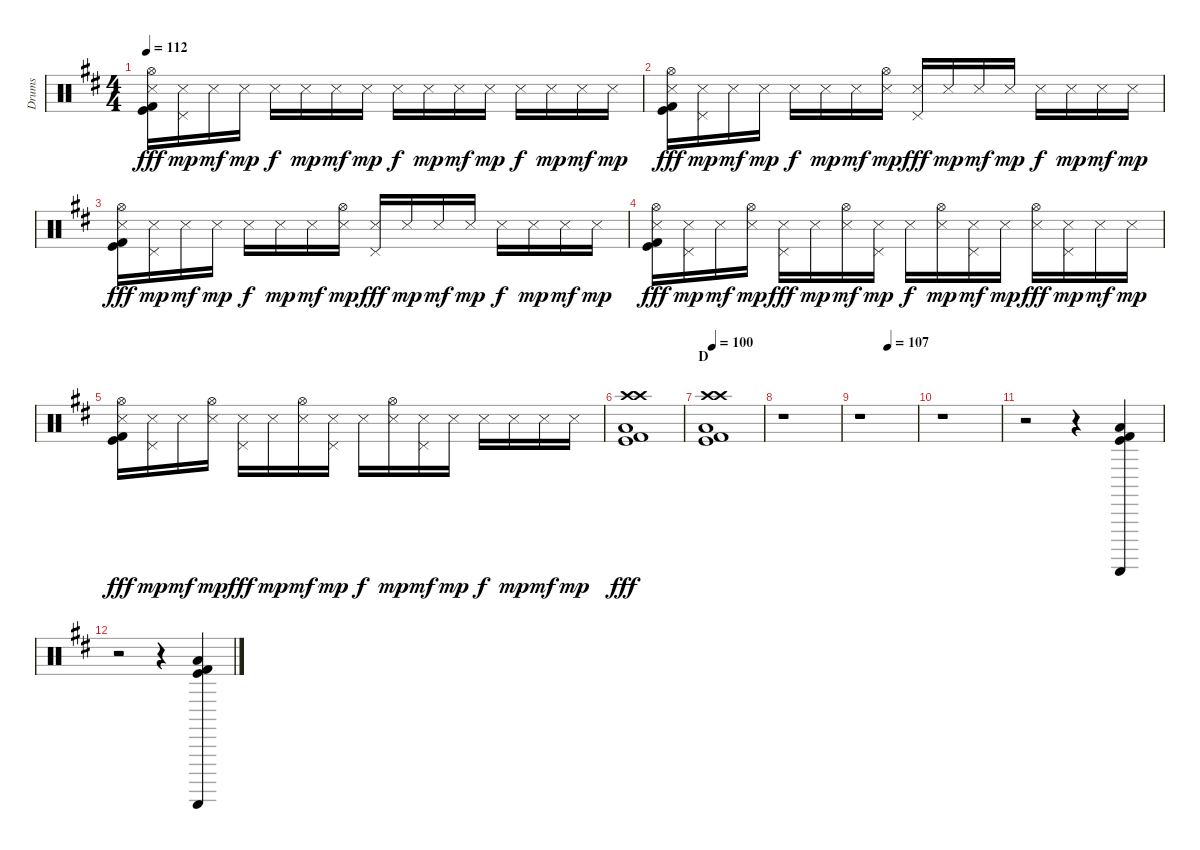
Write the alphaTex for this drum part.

\track ("Drums" "Drums") {instrument percussion}
\staff {score}
\articulation defaults
\ts (4 4)
\tempo 112
\clef neutral
\ks d
("Hi-Hat (open)" "Snare (side stick) 3" "Kick (hit) 2" "Kick (hit)").16{dy fff} ("Pedal Hi-Hat (hit)" "Snare (side stick) 3").16{dy mp} "Snare (side stick) 3".16{dy mf} "Snare (side stick) 3".16{dy mp} "Snare (side stick) 3".16{dy f} "Snare (side stick) 3".16{dy mp} "Snare (side stick) 3".16{dy mf} "Snare (side stick) 3".16{dy mp} "Snare (side stick) 3".16{dy f} "Snare (side stick) 3".16{dy mp} "Snare (side stick) 3".16{dy mf} "Snare (side stick) 3".16{dy mp} "Snare (side stick) 3".16{dy f} "Snare (side stick) 3".16{dy mp} "Snare (side stick) 3".16{dy mf} "Snare (side stick) 3".16{dy mp} |
("Hi-Hat (open)" "Snare (side stick) 3" "Kick (hit) 2" "Kick (hit)").16{dy fff} ("Pedal Hi-Hat (hit)" "Snare (side stick) 3").16{dy mp} "Snare (side stick) 3".16{dy mf} "Snare (side stick) 3".16{dy mp} "Snare (side stick) 3".16{dy f} "Snare (side stick) 3".16{dy mp} "Snare (side stick) 3".16{dy mf} ("Hi-Hat (open)" "Snare (side stick) 3").16{dy mp} ("Pedal Hi-Hat (hit)" "Snare (side stick) 3").16{dy fff} "Snare (side stick) 3".16{dy mp} "Snare (side stick) 3".16{dy mf} "Snare (side stick) 3".16{dy mp} "Snare (side stick) 3".16{dy f} "Snare (side stick) 3".16{dy mp} "Snare (side stick) 3".16{dy mf} "Snare (side stick) 3".16{dy mp} |
("Hi-Hat (open)" "Snare (side stick) 3" "Kick (hit) 2" "Kick (hit)").16{dy fff} ("Pedal Hi-Hat (hit)" "Snare (side stick) 3").16{dy mp} "Snare (side stick) 3".16{dy mf} "Snare (side stick) 3".16{dy mp} "Snare (side stick) 3".16{dy f} "Snare (side stick) 3".16{dy mp} "Snare (side stick) 3".16{dy mf} ("Hi-Hat (open)" "Snare (side stick) 3").16{dy mp} ("Pedal Hi-Hat (hit)" "Snare (side stick) 3").16{dy fff} "Snare (side stick) 3".16{dy mp} "Snare (side stick) 3".16{dy mf} "Snare (side stick) 3".16{dy mp} "Snare (side stick) 3".16{dy f} "Snare (side stick) 3".16{dy mp} "Snare (side stick) 3".16{dy mf} "Snare (side stick) 3".16{dy mp} |
("Hi-Hat (open)" "Snare (side stick) 3" "Kick (hit) 2" "Kick (hit)").16{dy fff} ("Pedal Hi-Hat (hit)" "Snare (side stick) 3").16{dy mp} "Snare (side stick) 3".16{dy mf} ("Hi-Hat (open)" "Snare (side stick) 3").16{dy mp} ("Pedal Hi-Hat (hit)" "Snare (side stick) 3").16{dy fff} "Snare (side stick) 3".16{dy mp} ("Hi-Hat (open)" "Snare (side stick) 3").16{dy mf} ("Pedal Hi-Hat (hit)" "Snare (side stick) 3").16{dy mp} "Snare (side stick) 3".16{dy f} ("Hi-Hat (open)" "Snare (side stick) 3").16{dy mp} ("Pedal Hi-Hat (hit)" "Snare (side stick) 3").16{dy mf} "Snare (side stick) 3".16{dy mp} ("Hi-Hat (open)" "Snare (side stick) 3").16{dy fff} ("Pedal Hi-Hat (hit)" "Snare (side stick) 3").16{dy mp} "Snare (side stick) 3".16{dy mf} "Snare (side stick) 3".16{dy mp} |
("Hi-Hat (open)" "Snare (side stick) 3" "Kick (hit) 2" "Kick (hit)").16{dy fff} ("Pedal Hi-Hat (hit)" "Snare (side stick) 3").16{dy mp} "Snare (side stick) 3".16{dy mf} ("Hi-Hat (open)" "Snare (side stick) 3").16{dy mp} ("Pedal Hi-Hat (hit)" "Snare (side stick) 3").16{dy fff} "Snare (side stick) 3".16{dy mp} ("Hi-Hat (open)" "Snare (side stick) 3").16{dy mf} ("Pedal Hi-Hat (hit)" "Snare (side stick) 3").16{dy mp} "Snare (side stick) 3".16{dy f} ("Hi-Hat (open)" "Snare (side stick) 3").16{dy mp} ("Pedal Hi-Hat (hit)" "Snare (side stick) 3").16{dy mf} "Snare (side stick) 3".16{dy mp} "Snare (side stick) 3".16{dy f} "Snare (side stick) 3".16{dy mp} "Snare (side stick) 3".16{dy mf} "Snare (side stick) 3".16{dy mp} |
("Crash high (hit)" "Crash high (hit)" "Low Floor Tom (hit)" "Kick (hit) 2" "Kick (hit)").1{dy fff} |
\section ("" "D")
\tempo 100
("Crash high (hit)" "Crash high (hit)" "Low Floor Tom (hit)" "Kick (hit) 2" "Kick (hit)").1 |
r.1 |
\tempo (107 0.5)
r.1 |
r.1 |
r.2 r.4 ("Guiro (scrap-return)" "Low Floor Tom (hit)" "Kick (hit) 2" "Kick (hit)").4 |
r.2 r.4 ("Guiro (scrap-return)" "Low Floor Tom (hit)" "Kick (hit) 2" "Kick (hit)").4
